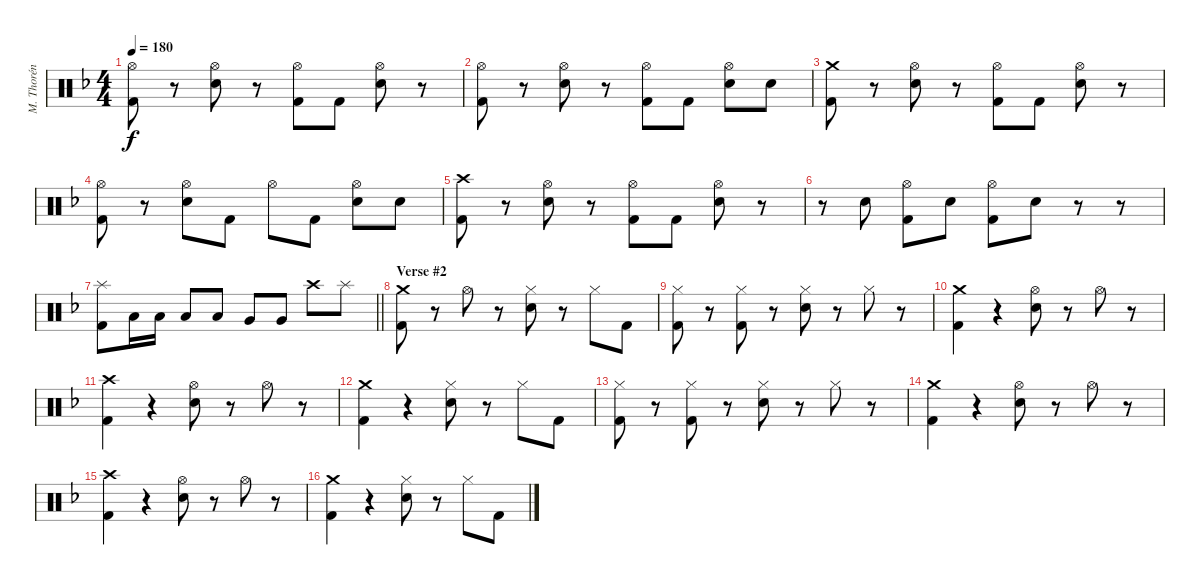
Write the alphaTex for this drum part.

\track ("M. Thorén (Drums)" "M. Thorén ") {instrument percussion}
\staff {score}
\articulation defaults
\ts (4 4)
\tempo 180
\clef neutral
\ks dminor
("Hi-Hat (open)" "Kick (hit) 2").8{dy f} r.8 ("Hi-Hat (open)" "Electric Snare (hit)").8 r.8 ("Hi-Hat (open)" "Kick (hit) 2").8 "Kick (hit) 2".8 ("Hi-Hat (open)" "Electric Snare (hit)").8 r.8 |
("Hi-Hat (open)" "Kick (hit) 2").8 r.8 ("Hi-Hat (open)" "Electric Snare (hit)").8 r.8 ("Hi-Hat (open)" "Kick (hit) 2").8 "Kick (hit) 2".8 ("Hi-Hat (open)" "Electric Snare (hit)").8 "Electric Snare (hit)".8 |
("Crash medium (hit)" "Kick (hit) 2").8 r.8 ("Hi-Hat (open)" "Electric Snare (hit)").8 r.8 ("Hi-Hat (open)" "Kick (hit) 2").8 "Kick (hit) 2".8 ("Hi-Hat (open)" "Electric Snare (hit)").8 r.8 |
("Hi-Hat (open)" "Kick (hit) 2").8 r.8 ("Hi-Hat (open)" "Electric Snare (hit)").8 "Kick (hit) 2".8 "Hi-Hat (open)".8 "Kick (hit) 2".8 ("Hi-Hat (open)" "Electric Snare (hit)").8 "Electric Snare (hit)".8 |
("Crash high (hit)" "Kick (hit) 2").8 r.8 ("Hi-Hat (open)" "Electric Snare (hit)").8 r.8 ("Hi-Hat (open)" "Kick (hit) 2").8 "Kick (hit) 2".8 ("Hi-Hat (open)" "Electric Snare (hit)").8 r.8 |
r.8 "Electric Snare (hit)".8 ("Hi-Hat (open)" "Kick (hit) 2").8 "Electric Snare (hit)".8 ("Hi-Hat (open)" "Kick (hit) 2").8 "Electric Snare (hit)".8 r.8 r.8 |
\barLineRight lightlight
("Splash (hit)" "Kick (hit) 2").8 "Low Tom (hit)".16 "Low Tom (hit)".16 "Low Tom (hit)".8 "Low Tom (hit)".8 "Very Low Tom (hit)".8 "Very Low Tom (hit)".8 "Crash high (hit)".8 "Splash (hit)".8 |
\section ("" "Verse #2")
("Crash medium (hit)" "Kick (hit) 2").8 r.8 "Hi-Hat (open)".8 r.8 ("Hi-Hat (closed)" "Electric Snare (hit)").8 r.8 "Hi-Hat (closed)".8 "Kick (hit) 2".8 |
("Hi-Hat (closed)" "Kick (hit) 2").8 r.8 ("Hi-Hat (closed)" "Kick (hit) 2").8 r.8 ("Hi-Hat (closed)" "Electric Snare (hit)").8 r.8 "Hi-Hat (closed)".8 r.8 |
("Crash medium (hit)" "Kick (hit) 2").4 r.4 ("Hi-Hat (open)" "Electric Snare (hit)").8 r.8 "Hi-Hat (open)".8 r.8 |
("Crash high (hit)" "Kick (hit) 2").4 r.4 ("Hi-Hat (open)" "Electric Snare (hit)").8 r.8 "Hi-Hat (open)".8 r.8 |
("Crash medium (hit)" "Kick (hit) 2").4 r.4 ("Hi-Hat (closed)" "Electric Snare (hit)").8 r.8 "Hi-Hat (closed)".8 "Kick (hit) 2".8 |
("Hi-Hat (closed)" "Kick (hit) 2").8 r.8 ("Hi-Hat (closed)" "Kick (hit) 2").8 r.8 ("Hi-Hat (closed)" "Electric Snare (hit)").8 r.8 "Hi-Hat (closed)".8 r.8 |
("Crash medium (hit)" "Kick (hit) 2").4 r.4 ("Hi-Hat (open)" "Electric Snare (hit)").8 r.8 "Hi-Hat (open)".8 r.8 |
("Crash high (hit)" "Kick (hit) 2").4 r.4 ("Hi-Hat (open)" "Electric Snare (hit)").8 r.8 "Hi-Hat (open)".8 r.8 |
("Crash medium (hit)" "Kick (hit) 2").4 r.4 ("Hi-Hat (closed)" "Electric Snare (hit)").8 r.8 "Hi-Hat (closed)".8 "Kick (hit) 2".8
